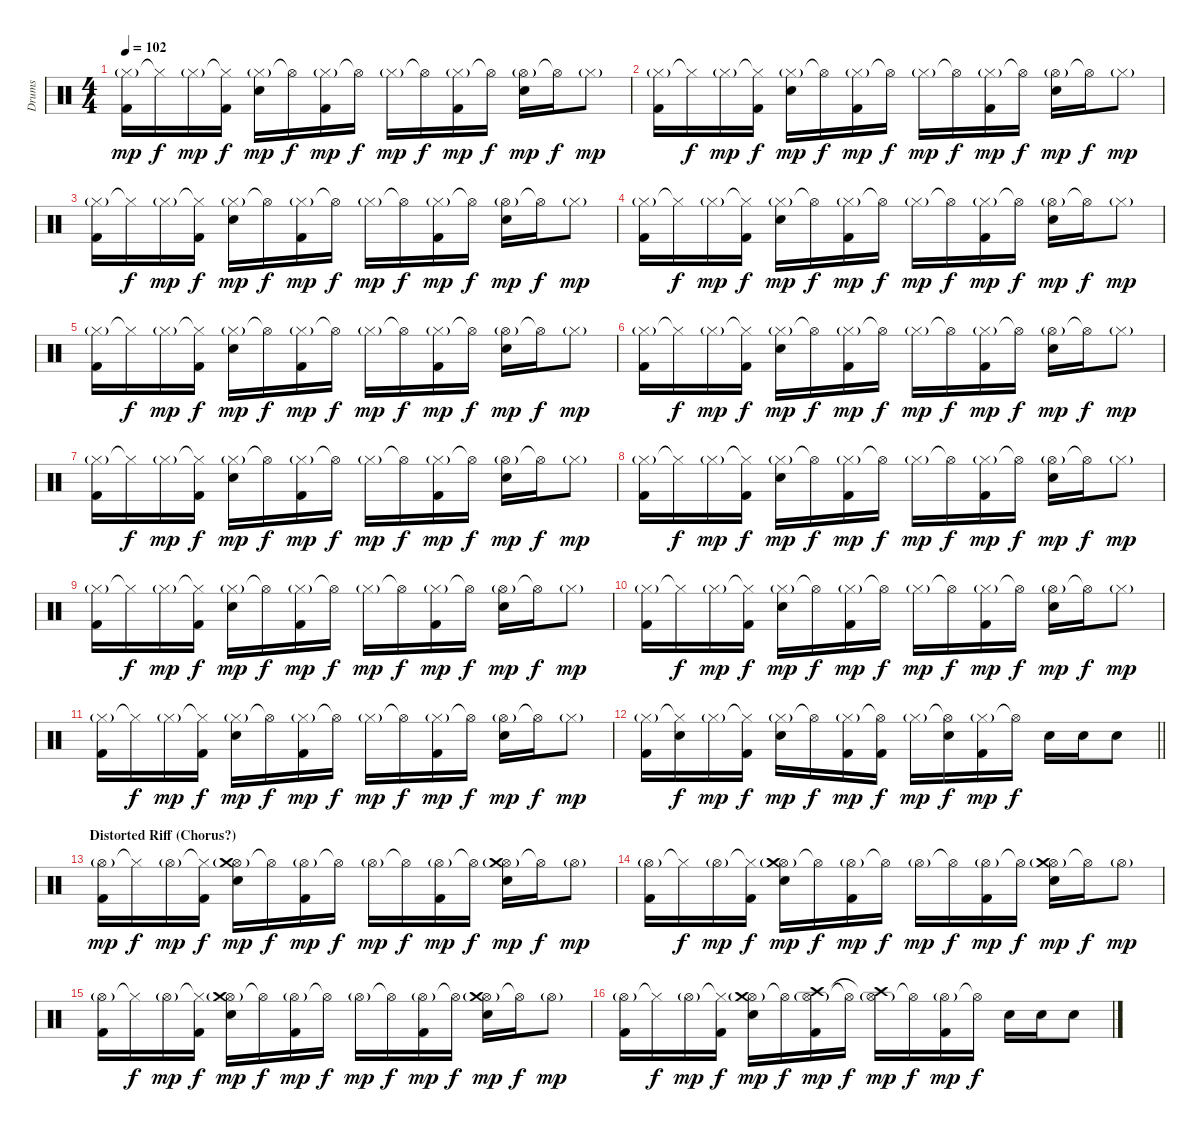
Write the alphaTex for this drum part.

\track ("Drums" "Drums") {instrument percussion}
\staff {score}
\articulation defaults
\ts (4 4)
\tempo 102
\clef neutral
\ks c
("Hi-Hat (closed)"{g} "Kick (hit) 2").16{dy mp} "Hi-Hat (closed)"{t}.16{dy f} "Hi-Hat (closed)"{g}.16{dy mp} ("Hi-Hat (closed)"{t} "Kick (hit) 2").16{dy f} ("Hi-Hat (closed)"{g} "Electric Snare (hit)").16{dy mp} "Hi-Hat (open)"{t}.16{dy f} ("Hi-Hat (closed)"{g} "Kick (hit) 2").16{dy mp} "Hi-Hat (open)"{t}.16{dy f} "Hi-Hat (closed)"{g}.16{dy mp} "Hi-Hat (open)"{t}.16{dy f} ("Hi-Hat (closed)"{g} "Kick (hit) 2").16{dy mp} "Hi-Hat (open)"{t}.16{dy f} ("Hi-Hat (open)"{g} "Electric Snare (hit)").16{dy mp} "Hi-Hat (open)"{t}.16{dy f} "Hi-Hat (closed)"{g}.8{dy mp} |
("Hi-Hat (closed)"{g} "Kick (hit) 2").16 "Hi-Hat (closed)"{t}.16{dy f} "Hi-Hat (closed)"{g}.16{dy mp} ("Hi-Hat (closed)"{t} "Kick (hit) 2").16{dy f} ("Hi-Hat (closed)"{g} "Electric Snare (hit)").16{dy mp} "Hi-Hat (open)"{t}.16{dy f} ("Hi-Hat (closed)"{g} "Kick (hit) 2").16{dy mp} "Hi-Hat (open)"{t}.16{dy f} "Hi-Hat (closed)"{g}.16{dy mp} "Hi-Hat (open)"{t}.16{dy f} ("Hi-Hat (closed)"{g} "Kick (hit) 2").16{dy mp} "Hi-Hat (open)"{t}.16{dy f} ("Hi-Hat (open)"{g} "Electric Snare (hit)").16{dy mp} "Hi-Hat (open)"{t}.16{dy f} "Hi-Hat (closed)"{g}.8{dy mp} |
("Hi-Hat (closed)"{g} "Kick (hit) 2").16 "Hi-Hat (closed)"{t}.16{dy f} "Hi-Hat (closed)"{g}.16{dy mp} ("Hi-Hat (closed)"{t} "Kick (hit) 2").16{dy f} ("Hi-Hat (closed)"{g} "Electric Snare (hit)").16{dy mp} "Hi-Hat (open)"{t}.16{dy f} ("Hi-Hat (closed)"{g} "Kick (hit) 2").16{dy mp} "Hi-Hat (open)"{t}.16{dy f} "Hi-Hat (closed)"{g}.16{dy mp} "Hi-Hat (open)"{t}.16{dy f} ("Hi-Hat (closed)"{g} "Kick (hit) 2").16{dy mp} "Hi-Hat (open)"{t}.16{dy f} ("Hi-Hat (open)"{g} "Electric Snare (hit)").16{dy mp} "Hi-Hat (open)"{t}.16{dy f} "Hi-Hat (closed)"{g}.8{dy mp} |
("Hi-Hat (closed)"{g} "Kick (hit) 2").16 "Hi-Hat (closed)"{t}.16{dy f} "Hi-Hat (closed)"{g}.16{dy mp} ("Hi-Hat (closed)"{t} "Kick (hit) 2").16{dy f} ("Hi-Hat (closed)"{g} "Electric Snare (hit)").16{dy mp} "Hi-Hat (open)"{t}.16{dy f} ("Hi-Hat (closed)"{g} "Kick (hit) 2").16{dy mp} "Hi-Hat (open)"{t}.16{dy f} "Hi-Hat (closed)"{g}.16{dy mp} "Hi-Hat (open)"{t}.16{dy f} ("Hi-Hat (closed)"{g} "Kick (hit) 2").16{dy mp} "Hi-Hat (open)"{t}.16{dy f} ("Hi-Hat (open)"{g} "Electric Snare (hit)").16{dy mp} "Hi-Hat (open)"{t}.16{dy f} "Hi-Hat (closed)"{g}.8{dy mp} |
("Hi-Hat (closed)"{g} "Kick (hit) 2").16 "Hi-Hat (closed)"{t}.16{dy f} "Hi-Hat (closed)"{g}.16{dy mp} ("Hi-Hat (closed)"{t} "Kick (hit) 2").16{dy f} ("Hi-Hat (closed)"{g} "Electric Snare (hit)").16{dy mp} "Hi-Hat (open)"{t}.16{dy f} ("Hi-Hat (closed)"{g} "Kick (hit) 2").16{dy mp} "Hi-Hat (open)"{t}.16{dy f} "Hi-Hat (closed)"{g}.16{dy mp} "Hi-Hat (open)"{t}.16{dy f} ("Hi-Hat (closed)"{g} "Kick (hit) 2").16{dy mp} "Hi-Hat (open)"{t}.16{dy f} ("Hi-Hat (open)"{g} "Electric Snare (hit)").16{dy mp} "Hi-Hat (open)"{t}.16{dy f} "Hi-Hat (closed)"{g}.8{dy mp} |
("Hi-Hat (closed)"{g} "Kick (hit) 2").16 "Hi-Hat (closed)"{t}.16{dy f} "Hi-Hat (closed)"{g}.16{dy mp} ("Hi-Hat (closed)"{t} "Kick (hit) 2").16{dy f} ("Hi-Hat (closed)"{g} "Electric Snare (hit)").16{dy mp} "Hi-Hat (open)"{t}.16{dy f} ("Hi-Hat (closed)"{g} "Kick (hit) 2").16{dy mp} "Hi-Hat (open)"{t}.16{dy f} "Hi-Hat (closed)"{g}.16{dy mp} "Hi-Hat (open)"{t}.16{dy f} ("Hi-Hat (closed)"{g} "Kick (hit) 2").16{dy mp} "Hi-Hat (open)"{t}.16{dy f} ("Hi-Hat (open)"{g} "Electric Snare (hit)").16{dy mp} "Hi-Hat (open)"{t}.16{dy f} "Hi-Hat (closed)"{g}.8{dy mp} |
("Hi-Hat (closed)"{g} "Kick (hit) 2").16 "Hi-Hat (closed)"{t}.16{dy f} "Hi-Hat (closed)"{g}.16{dy mp} ("Hi-Hat (closed)"{t} "Kick (hit) 2").16{dy f} ("Hi-Hat (closed)"{g} "Electric Snare (hit)").16{dy mp} "Hi-Hat (open)"{t}.16{dy f} ("Hi-Hat (closed)"{g} "Kick (hit) 2").16{dy mp} "Hi-Hat (open)"{t}.16{dy f} "Hi-Hat (closed)"{g}.16{dy mp} "Hi-Hat (open)"{t}.16{dy f} ("Hi-Hat (closed)"{g} "Kick (hit) 2").16{dy mp} "Hi-Hat (open)"{t}.16{dy f} ("Hi-Hat (open)"{g} "Electric Snare (hit)").16{dy mp} "Hi-Hat (open)"{t}.16{dy f} "Hi-Hat (closed)"{g}.8{dy mp} |
("Hi-Hat (closed)"{g} "Kick (hit) 2").16 "Hi-Hat (closed)"{t}.16{dy f} "Hi-Hat (closed)"{g}.16{dy mp} ("Hi-Hat (closed)"{t} "Kick (hit) 2").16{dy f} ("Hi-Hat (closed)"{g} "Electric Snare (hit)").16{dy mp} "Hi-Hat (open)"{t}.16{dy f} ("Hi-Hat (closed)"{g} "Kick (hit) 2").16{dy mp} "Hi-Hat (open)"{t}.16{dy f} "Hi-Hat (closed)"{g}.16{dy mp} "Hi-Hat (open)"{t}.16{dy f} ("Hi-Hat (closed)"{g} "Kick (hit) 2").16{dy mp} "Hi-Hat (open)"{t}.16{dy f} ("Hi-Hat (open)"{g} "Electric Snare (hit)").16{dy mp} "Hi-Hat (open)"{t}.16{dy f} "Hi-Hat (closed)"{g}.8{dy mp} |
("Hi-Hat (closed)"{g} "Kick (hit) 2").16 "Hi-Hat (closed)"{t}.16{dy f} "Hi-Hat (closed)"{g}.16{dy mp} ("Hi-Hat (closed)"{t} "Kick (hit) 2").16{dy f} ("Hi-Hat (closed)"{g} "Electric Snare (hit)").16{dy mp} "Hi-Hat (open)"{t}.16{dy f} ("Hi-Hat (closed)"{g} "Kick (hit) 2").16{dy mp} "Hi-Hat (open)"{t}.16{dy f} "Hi-Hat (closed)"{g}.16{dy mp} "Hi-Hat (open)"{t}.16{dy f} ("Hi-Hat (closed)"{g} "Kick (hit) 2").16{dy mp} "Hi-Hat (open)"{t}.16{dy f} ("Hi-Hat (open)"{g} "Electric Snare (hit)").16{dy mp} "Hi-Hat (open)"{t}.16{dy f} "Hi-Hat (closed)"{g}.8{dy mp} |
("Hi-Hat (closed)"{g} "Kick (hit) 2").16 "Hi-Hat (closed)"{t}.16{dy f} "Hi-Hat (closed)"{g}.16{dy mp} ("Hi-Hat (closed)"{t} "Kick (hit) 2").16{dy f} ("Hi-Hat (closed)"{g} "Electric Snare (hit)").16{dy mp} "Hi-Hat (open)"{t}.16{dy f} ("Hi-Hat (closed)"{g} "Kick (hit) 2").16{dy mp} "Hi-Hat (open)"{t}.16{dy f} "Hi-Hat (closed)"{g}.16{dy mp} "Hi-Hat (open)"{t}.16{dy f} ("Hi-Hat (closed)"{g} "Kick (hit) 2").16{dy mp} "Hi-Hat (open)"{t}.16{dy f} ("Hi-Hat (open)"{g} "Electric Snare (hit)").16{dy mp} "Hi-Hat (open)"{t}.16{dy f} "Hi-Hat (closed)"{g}.8{dy mp} |
("Hi-Hat (closed)"{g} "Kick (hit) 2").16 "Hi-Hat (closed)"{t}.16{dy f} "Hi-Hat (closed)"{g}.16{dy mp} ("Hi-Hat (closed)"{t} "Kick (hit) 2").16{dy f} ("Hi-Hat (closed)"{g} "Electric Snare (hit)").16{dy mp} "Hi-Hat (open)"{t}.16{dy f} ("Hi-Hat (closed)"{g} "Kick (hit) 2").16{dy mp} "Hi-Hat (open)"{t}.16{dy f} "Hi-Hat (closed)"{g}.16{dy mp} "Hi-Hat (open)"{t}.16{dy f} ("Hi-Hat (closed)"{g} "Kick (hit) 2").16{dy mp} "Hi-Hat (open)"{t}.16{dy f} ("Hi-Hat (open)"{g} "Electric Snare (hit)").16{dy mp} "Hi-Hat (open)"{t}.16{dy f} "Hi-Hat (closed)"{g}.8{dy mp} |
\barLineRight lightlight
("Hi-Hat (closed)"{g} "Kick (hit) 2").16 ("Hi-Hat (closed)"{t} "Electric Snare (hit)").16{dy f} "Hi-Hat (closed)"{g}.16{dy mp} ("Hi-Hat (closed)"{t} "Kick (hit) 2").16{dy f} ("Hi-Hat (closed)"{g} "Electric Snare (hit)").16{dy mp} "Hi-Hat (open)"{t}.16{dy f} ("Hi-Hat (closed)"{g} "Kick (hit) 2").16{dy mp} ("Hi-Hat (open)"{t} "Kick (hit) 2").16{dy f} "Hi-Hat (closed)"{g}.16{dy mp} ("Hi-Hat (open)"{t} "Electric Snare (hit)").16{dy f} ("Hi-Hat (closed)"{g} "Kick (hit) 2").16{dy mp} "Hi-Hat (open)"{t}.16{dy f} "Electric Snare (hit)".16 "Electric Snare (hit)".16 "Electric Snare (hit)".8 |
\section ("" "Distorted Riff (Chorus?)")
("Hi-Hat (open)"{g} "Kick (hit) 2").16{dy mp} "Hi-Hat (closed)"{t}.16{dy f} "Hi-Hat (open)"{g}.16{dy mp} ("Hi-Hat (closed)"{t} "Kick (hit) 2").16{dy f} ("Hi-Hat (open)"{g} "Crash medium (hit)"{g} "Electric Snare (hit)").16{dy mp} "Hi-Hat (open)"{t}.16{dy f} ("Hi-Hat (open)"{g} "Kick (hit) 2").16{dy mp} "Hi-Hat (open)"{t}.16{dy f} "Hi-Hat (open)"{g}.16{dy mp} "Hi-Hat (open)"{t}.16{dy f} ("Hi-Hat (open)"{g} "Kick (hit) 2").16{dy mp} "Hi-Hat (open)"{t}.16{dy f} ("Hi-Hat (open)"{g} "Crash medium (hit)"{g} "Electric Snare (hit)").16{dy mp} "Hi-Hat (open)"{t}.16{dy f} "Hi-Hat (open)"{g}.8{dy mp} |
("Hi-Hat (open)"{g} "Kick (hit) 2").16 "Hi-Hat (closed)"{t}.16{dy f} "Hi-Hat (open)"{g}.16{dy mp} ("Hi-Hat (closed)"{t} "Kick (hit) 2").16{dy f} ("Hi-Hat (open)"{g} "Crash medium (hit)"{g} "Electric Snare (hit)").16{dy mp} "Hi-Hat (open)"{t}.16{dy f} ("Hi-Hat (open)"{g} "Kick (hit) 2").16{dy mp} "Hi-Hat (open)"{t}.16{dy f} "Hi-Hat (open)"{g}.16{dy mp} "Hi-Hat (open)"{t}.16{dy f} ("Hi-Hat (open)"{g} "Kick (hit) 2").16{dy mp} "Hi-Hat (open)"{t}.16{dy f} ("Hi-Hat (open)"{g} "Crash medium (hit)"{g} "Electric Snare (hit)").16{dy mp} "Hi-Hat (open)"{t}.16{dy f} "Hi-Hat (open)"{g}.8{dy mp} |
("Hi-Hat (open)"{g} "Kick (hit) 2").16 "Hi-Hat (closed)"{t}.16{dy f} "Hi-Hat (open)"{g}.16{dy mp} ("Hi-Hat (closed)"{t} "Kick (hit) 2").16{dy f} ("Hi-Hat (open)"{g} "Crash medium (hit)"{g} "Electric Snare (hit)").16{dy mp} "Hi-Hat (open)"{t}.16{dy f} ("Hi-Hat (open)"{g} "Kick (hit) 2").16{dy mp} "Hi-Hat (open)"{t}.16{dy f} "Hi-Hat (open)"{g}.16{dy mp} "Hi-Hat (open)"{t}.16{dy f} ("Hi-Hat (open)"{g} "Kick (hit) 2").16{dy mp} "Hi-Hat (open)"{t}.16{dy f} ("Hi-Hat (open)"{g} "Crash medium (hit)"{g} "Electric Snare (hit)").16{dy mp} "Hi-Hat (open)"{t}.16{dy f} "Hi-Hat (open)"{g}.8{dy mp} |
("Hi-Hat (open)"{g} "Kick (hit) 2").16 "Hi-Hat (closed)"{t}.16{dy f} "Hi-Hat (open)"{g}.16{dy mp} ("Hi-Hat (closed)"{t} "Kick (hit) 2").16{dy f} ("Hi-Hat (open)"{g} "Crash medium (hit)"{g} "Electric Snare (hit)").16{dy mp} "Hi-Hat (open)"{t}.16{dy f} ("Hi-Hat (open)"{g} "Crash high (hit)" "Kick (hit) 2").16{dy mp} "Hi-Hat (open)"{t}.16{dy f} ("Hi-Hat (open)"{g} "Crash high (hit)"{t}).16{dy mp} "Hi-Hat (open)"{t}.16{dy f} ("Hi-Hat (open)"{g} "Kick (hit) 2").16{dy mp} "Hi-Hat (open)"{t}.16{dy f} "Electric Snare (hit)".16 "Electric Snare (hit)".16 "Electric Snare (hit)".8
